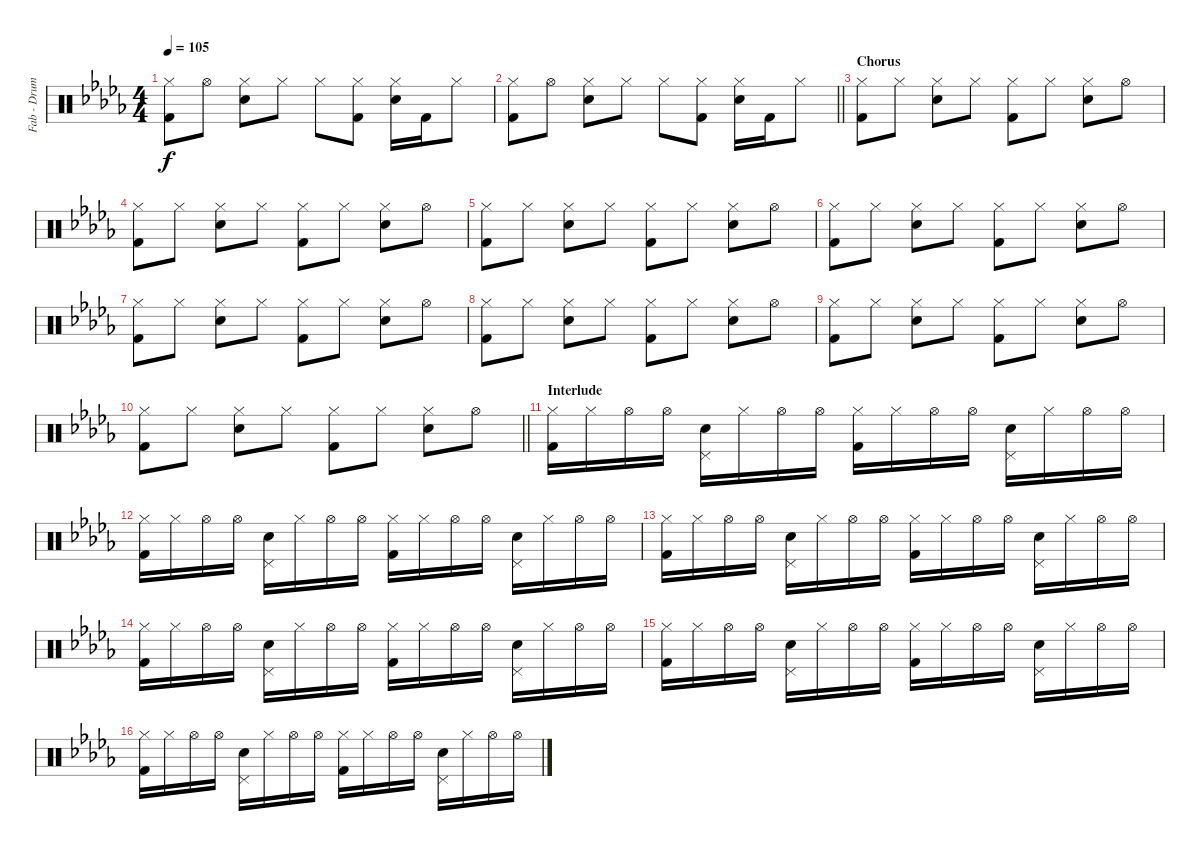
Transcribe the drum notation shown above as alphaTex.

\track ("Fab - Drums MIDI" "Fab - Drum") {instrument percussion}
\staff {score}
\articulation defaults
\ts (4 4)
\tempo 105
\clef neutral
\ks db
("Hi-Hat (closed)" "Kick (hit) 2").8{dy f} "Hi-Hat (open)".8 ("Hi-Hat (closed)" "Snare (hit) 2").8 "Hi-Hat (closed)".8 "Hi-Hat (closed)".8 ("Hi-Hat (closed)" "Kick (hit) 2").8 ("Hi-Hat (closed)" "Snare (hit) 2").16 "Kick (hit) 2".16 "Hi-Hat (closed)".8 |
\barLineRight lightlight
("Hi-Hat (closed)" "Kick (hit) 2").8 "Hi-Hat (open)".8 ("Hi-Hat (closed)" "Snare (hit) 2").8 "Hi-Hat (closed)".8 "Hi-Hat (closed)".8 ("Hi-Hat (closed)" "Kick (hit) 2").8 ("Hi-Hat (closed)" "Snare (hit) 2").16 "Kick (hit) 2".16 "Hi-Hat (closed)".8 |
\section ("" "Chorus")
("Hi-Hat (closed)" "Kick (hit) 2").8 "Hi-Hat (closed)".8 ("Hi-Hat (closed)" "Snare (hit) 2").8 "Hi-Hat (closed)".8 ("Hi-Hat (closed)" "Kick (hit) 2").8 "Hi-Hat (closed)".8 ("Hi-Hat (closed)" "Snare (hit) 2").8 "Hi-Hat (open)".8 |
("Hi-Hat (closed)" "Kick (hit) 2").8 "Hi-Hat (closed)".8 ("Hi-Hat (closed)" "Snare (hit) 2").8 "Hi-Hat (closed)".8 ("Hi-Hat (closed)" "Kick (hit) 2").8 "Hi-Hat (closed)".8 ("Hi-Hat (closed)" "Snare (hit) 2").8 "Hi-Hat (open)".8 |
("Hi-Hat (closed)" "Kick (hit) 2").8 "Hi-Hat (closed)".8 ("Hi-Hat (closed)" "Snare (hit) 2").8 "Hi-Hat (closed)".8 ("Hi-Hat (closed)" "Kick (hit) 2").8 "Hi-Hat (closed)".8 ("Hi-Hat (closed)" "Snare (hit) 2").8 "Hi-Hat (open)".8 |
("Hi-Hat (closed)" "Kick (hit) 2").8 "Hi-Hat (closed)".8 ("Hi-Hat (closed)" "Snare (hit) 2").8 "Hi-Hat (closed)".8 ("Hi-Hat (closed)" "Kick (hit) 2").8 "Hi-Hat (closed)".8 ("Hi-Hat (closed)" "Snare (hit) 2").8 "Hi-Hat (open)".8 |
("Hi-Hat (closed)" "Kick (hit) 2").8 "Hi-Hat (closed)".8 ("Hi-Hat (closed)" "Snare (hit) 2").8 "Hi-Hat (closed)".8 ("Hi-Hat (closed)" "Kick (hit) 2").8 "Hi-Hat (closed)".8 ("Hi-Hat (closed)" "Snare (hit) 2").8 "Hi-Hat (open)".8 |
("Hi-Hat (closed)" "Kick (hit) 2").8 "Hi-Hat (closed)".8 ("Hi-Hat (closed)" "Snare (hit) 2").8 "Hi-Hat (closed)".8 ("Hi-Hat (closed)" "Kick (hit) 2").8 "Hi-Hat (closed)".8 ("Hi-Hat (closed)" "Snare (hit) 2").8 "Hi-Hat (open)".8 |
("Hi-Hat (closed)" "Kick (hit) 2").8 "Hi-Hat (closed)".8 ("Hi-Hat (closed)" "Snare (hit) 2").8 "Hi-Hat (closed)".8 ("Hi-Hat (closed)" "Kick (hit) 2").8 "Hi-Hat (closed)".8 ("Hi-Hat (closed)" "Snare (hit) 2").8 "Hi-Hat (open)".8 |
\barLineRight lightlight
("Hi-Hat (closed)" "Kick (hit) 2").8 "Hi-Hat (closed)".8 ("Hi-Hat (closed)" "Snare (hit) 2").8 "Hi-Hat (closed)".8 ("Hi-Hat (closed)" "Kick (hit) 2").8 "Hi-Hat (closed)".8 ("Hi-Hat (closed)" "Snare (hit) 2").8 "Hi-Hat (open)".8 |
\section ("" "Interlude")
("Hi-Hat (closed)" "Kick (hit) 2").16 "Hi-Hat (closed)".16 "Hi-Hat (open)".16 "Hi-Hat (open)".16 ("Pedal Hi-Hat (hit)" "Snare (hit) 2").16 "Hi-Hat (closed)".16 "Hi-Hat (open)".16 "Hi-Hat (open)".16 ("Hi-Hat (closed)" "Kick (hit) 2").16 "Hi-Hat (closed)".16 "Hi-Hat (open)".16 "Hi-Hat (open)".16 ("Pedal Hi-Hat (hit)" "Snare (hit) 2").16 "Hi-Hat (closed)".16 "Hi-Hat (open)".16 "Hi-Hat (open)".16 |
("Hi-Hat (closed)" "Kick (hit) 2").16 "Hi-Hat (closed)".16 "Hi-Hat (open)".16 "Hi-Hat (open)".16 ("Pedal Hi-Hat (hit)" "Snare (hit) 2").16 "Hi-Hat (closed)".16 "Hi-Hat (open)".16 "Hi-Hat (open)".16 ("Hi-Hat (closed)" "Kick (hit) 2").16 "Hi-Hat (closed)".16 "Hi-Hat (open)".16 "Hi-Hat (open)".16 ("Pedal Hi-Hat (hit)" "Snare (hit) 2").16 "Hi-Hat (closed)".16 "Hi-Hat (open)".16 "Hi-Hat (open)".16 |
("Hi-Hat (closed)" "Kick (hit) 2").16 "Hi-Hat (closed)".16 "Hi-Hat (open)".16 "Hi-Hat (open)".16 ("Pedal Hi-Hat (hit)" "Snare (hit) 2").16 "Hi-Hat (closed)".16 "Hi-Hat (open)".16 "Hi-Hat (open)".16 ("Hi-Hat (closed)" "Kick (hit) 2").16 "Hi-Hat (closed)".16 "Hi-Hat (open)".16 "Hi-Hat (open)".16 ("Pedal Hi-Hat (hit)" "Snare (hit) 2").16 "Hi-Hat (closed)".16 "Hi-Hat (open)".16 "Hi-Hat (open)".16 |
("Hi-Hat (closed)" "Kick (hit) 2").16 "Hi-Hat (closed)".16 "Hi-Hat (open)".16 "Hi-Hat (open)".16 ("Pedal Hi-Hat (hit)" "Snare (hit) 2").16 "Hi-Hat (closed)".16 "Hi-Hat (open)".16 "Hi-Hat (open)".16 ("Hi-Hat (closed)" "Kick (hit) 2").16 "Hi-Hat (closed)".16 "Hi-Hat (open)".16 "Hi-Hat (open)".16 ("Pedal Hi-Hat (hit)" "Snare (hit) 2").16 "Hi-Hat (closed)".16 "Hi-Hat (open)".16 "Hi-Hat (open)".16 |
("Hi-Hat (closed)" "Kick (hit) 2").16 "Hi-Hat (closed)".16 "Hi-Hat (open)".16 "Hi-Hat (open)".16 ("Pedal Hi-Hat (hit)" "Snare (hit) 2").16 "Hi-Hat (closed)".16 "Hi-Hat (open)".16 "Hi-Hat (open)".16 ("Hi-Hat (closed)" "Kick (hit) 2").16 "Hi-Hat (closed)".16 "Hi-Hat (open)".16 "Hi-Hat (open)".16 ("Pedal Hi-Hat (hit)" "Snare (hit) 2").16 "Hi-Hat (closed)".16 "Hi-Hat (open)".16 "Hi-Hat (open)".16 |
("Hi-Hat (closed)" "Kick (hit) 2").16 "Hi-Hat (closed)".16 "Hi-Hat (open)".16 "Hi-Hat (open)".16 ("Pedal Hi-Hat (hit)" "Snare (hit) 2").16 "Hi-Hat (closed)".16 "Hi-Hat (open)".16 "Hi-Hat (open)".16 ("Hi-Hat (closed)" "Kick (hit) 2").16 "Hi-Hat (closed)".16 "Hi-Hat (open)".16 "Hi-Hat (open)".16 ("Pedal Hi-Hat (hit)" "Snare (hit) 2").16 "Hi-Hat (closed)".16 "Hi-Hat (open)".16 "Hi-Hat (open)".16
